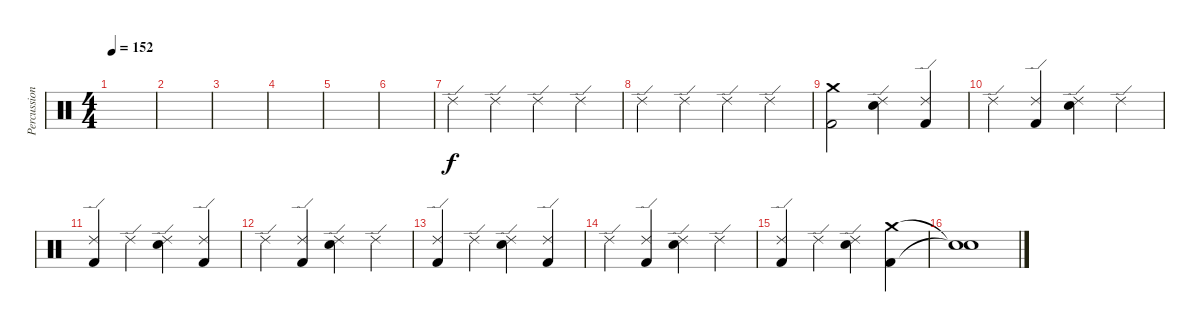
\track ("Percussion" "Percussion") {instrument percussion}
\staff {score}
\articulation defaults
\ts (4 4)
\tempo 152
\clef neutral
\ks c
|
|
|
|
|
|
"Ride (edge) 2".4 "Ride (edge) 2".4 "Ride (edge) 2".4 "Ride (edge) 2".4 |
"Ride (edge) 2".4 "Ride (edge) 2".4 "Ride (edge) 2".4 "Ride (edge) 2".4 |
("Crash medium (hit)" "Kick (hit) 2").2 ("Ride (edge) 2" "Electric Snare (hit)").4 ("Ride (edge) 2" "Kick (hit) 2").4 |
"Ride (edge) 2".4 ("Ride (edge) 2" "Kick (hit) 2").4 ("Ride (edge) 2" "Electric Snare (hit)").4 "Ride (edge) 2".4 |
("Ride (edge) 2" "Kick (hit) 2").4 "Ride (edge) 2".4 ("Ride (edge) 2" "Electric Snare (hit)").4 ("Ride (edge) 2" "Kick (hit) 2").4 |
"Ride (edge) 2".4 ("Ride (edge) 2" "Kick (hit) 2").4 ("Ride (edge) 2" "Electric Snare (hit)").4 "Ride (edge) 2".4 |
("Ride (edge) 2" "Kick (hit) 2").4 "Ride (edge) 2".4 ("Ride (edge) 2" "Electric Snare (hit)").4 ("Ride (edge) 2" "Kick (hit) 2").4 |
"Ride (edge) 2".4 ("Ride (edge) 2" "Kick (hit) 2").4 ("Ride (edge) 2" "Electric Snare (hit)").4 "Ride (edge) 2".4 |
("Ride (edge) 2" "Kick (hit) 2").4 "Ride (edge) 2".4 ("Ride (edge) 2" "Electric Snare (hit)").4 ("Crash medium (hit)" "Kick (hit) 2").4 |
("Snare (hit)"{t} "Snare (hit)"{t}).1
